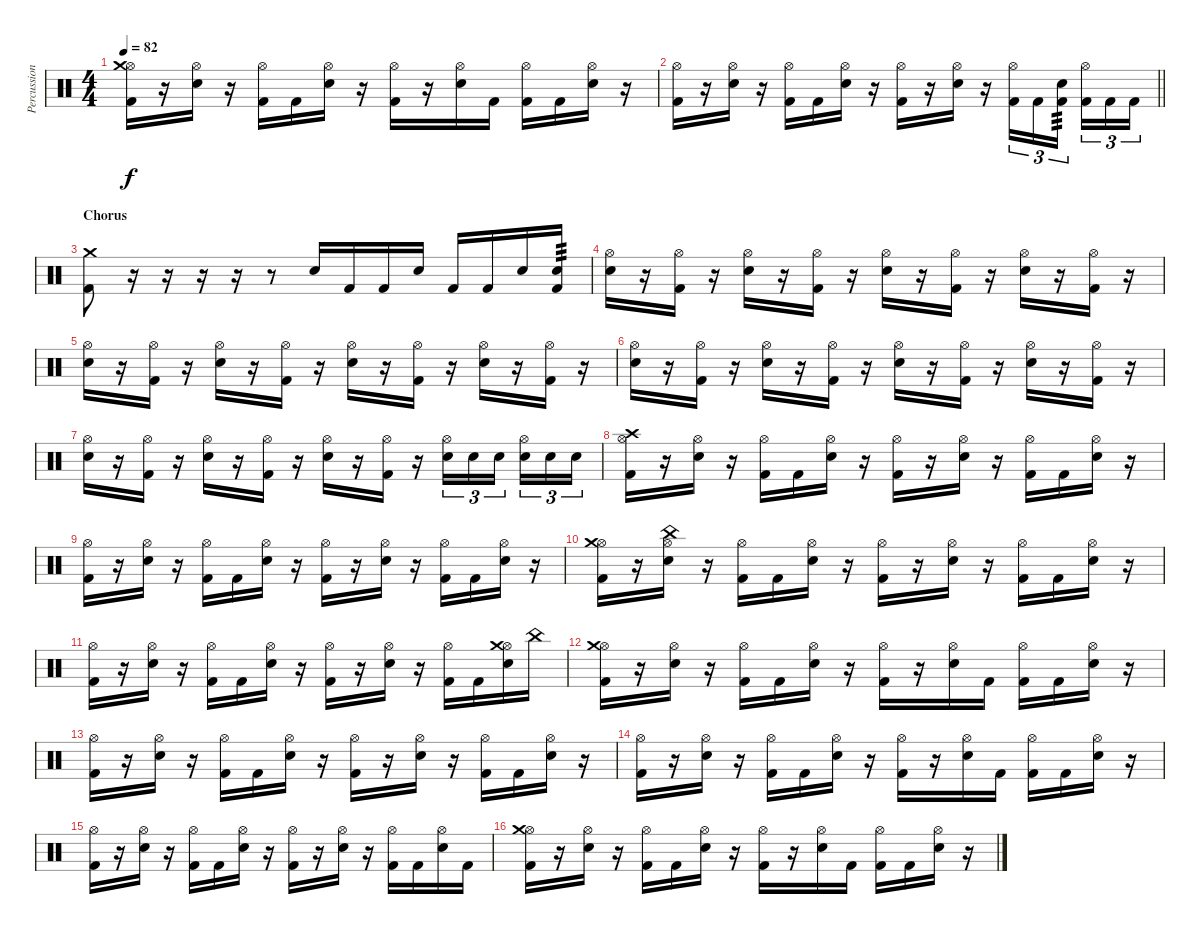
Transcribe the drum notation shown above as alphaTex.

\track ("Percussion" "Percussion") {instrument percussion}
\staff {score}
\articulation defaults
\ts (4 4)
\tempo 82
\clef neutral
\ks c
("Hi-Hat (open)" "Crash medium (hit)" "Kick (hit) 2").16{dy f} r.16 ("Hi-Hat (open)" "Snare (hit) 2").16 r.16 ("Hi-Hat (open)" "Kick (hit) 2").16 "Kick (hit) 2".16 ("Hi-Hat (open)" "Snare (hit) 2").16 r.16 ("Hi-Hat (open)" "Kick (hit) 2").16 r.16 ("Hi-Hat (open)" "Snare (hit) 2").16 "Kick (hit) 2".16 ("Hi-Hat (open)" "Kick (hit) 2").16 "Kick (hit) 2".16 ("Hi-Hat (open)" "Snare (hit) 2").16 r.16 |
\barLineRight lightlight
("Hi-Hat (open)" "Kick (hit) 2").16 r.16 ("Hi-Hat (open)" "Snare (hit) 2").16 r.16 ("Hi-Hat (open)" "Kick (hit) 2").16 "Kick (hit) 2".16 ("Hi-Hat (open)" "Snare (hit) 2").16 r.16 ("Hi-Hat (open)" "Kick (hit) 2").16 r.16 ("Hi-Hat (open)" "Snare (hit) 2").16 r.16 ("Hi-Hat (open)" "Kick (hit) 2").16{tu (3 2)} "Kick (hit) 2".16{tu (3 2)} ("Snare (hit) 2" "Kick (hit) 2").16{tu (3 2) tp 3 beam splitsecondary} ("Hi-Hat (open)" "Kick (hit) 2").16{tu (3 2)} "Kick (hit) 2".16{tu (3 2)} "Kick (hit) 2".16{tu (3 2)} |
\section ("" "Chorus")
("Crash medium (hit)" "Kick (hit) 2").8 r.16 r.16 r.16 r.16 r.8 "Snare (hit) 2".16 "Kick (hit) 2".16 "Kick (hit) 2".16 "Snare (hit) 2".16 "Kick (hit) 2".16 "Kick (hit) 2".16 "Snare (hit) 2".16 ("Snare (hit) 2" "Kick (hit) 2").16{tp 3} |
("Hi-Hat (open)" "Snare (hit) 2").16 r.16 ("Hi-Hat (open)" "Kick (hit) 2").16 r.16 ("Hi-Hat (open)" "Snare (hit) 2").16 r.16 ("Hi-Hat (open)" "Kick (hit) 2").16 r.16 ("Hi-Hat (open)" "Snare (hit) 2").16 r.16 ("Hi-Hat (open)" "Kick (hit) 2").16 r.16 ("Hi-Hat (open)" "Snare (hit) 2").16 r.16 ("Hi-Hat (open)" "Kick (hit) 2").16 r.16 |
("Hi-Hat (open)" "Snare (hit) 2").16 r.16 ("Hi-Hat (open)" "Kick (hit) 2").16 r.16 ("Hi-Hat (open)" "Snare (hit) 2").16 r.16 ("Hi-Hat (open)" "Kick (hit) 2").16 r.16 ("Hi-Hat (open)" "Snare (hit) 2").16 r.16 ("Hi-Hat (open)" "Kick (hit) 2").16 r.16 ("Hi-Hat (open)" "Snare (hit) 2").16 r.16 ("Hi-Hat (open)" "Kick (hit) 2").16 r.16 |
("Hi-Hat (open)" "Snare (hit) 2").16 r.16 ("Hi-Hat (open)" "Kick (hit) 2").16 r.16 ("Hi-Hat (open)" "Snare (hit) 2").16 r.16 ("Hi-Hat (open)" "Kick (hit) 2").16 r.16 ("Hi-Hat (open)" "Snare (hit) 2").16 r.16 ("Hi-Hat (open)" "Kick (hit) 2").16 r.16 ("Hi-Hat (open)" "Snare (hit) 2").16 r.16 ("Hi-Hat (open)" "Kick (hit) 2").16 r.16 |
("Hi-Hat (open)" "Snare (hit) 2").16 r.16 ("Hi-Hat (open)" "Kick (hit) 2").16 r.16 ("Hi-Hat (open)" "Snare (hit) 2").16 r.16 ("Hi-Hat (open)" "Kick (hit) 2").16 r.16 ("Hi-Hat (open)" "Snare (hit) 2").16 r.16 ("Hi-Hat (open)" "Kick (hit) 2").16 r.16 ("Hi-Hat (open)" "Snare (hit) 2").16{tu (3 2)} "Snare (hit) 2".16{tu (3 2)} "Snare (hit) 2".16{tu (3 2) beam splitsecondary} ("Hi-Hat (open)" "Snare (hit) 2").16{tu (3 2)} "Snare (hit) 2".16{tu (3 2)} "Snare (hit) 2".16{tu (3 2)} |
("Hi-Hat (open)" "Crash high (hit)" "Kick (hit) 2").16 r.16 ("Hi-Hat (open)" "Snare (hit) 2").16 r.16 ("Hi-Hat (open)" "Kick (hit) 2").16 "Kick (hit) 2".16 ("Hi-Hat (open)" "Snare (hit) 2").16 r.16 ("Hi-Hat (open)" "Kick (hit) 2").16 r.16 ("Hi-Hat (open)" "Snare (hit) 2").16 r.16 ("Hi-Hat (open)" "Kick (hit) 2").16 "Kick (hit) 2".16 ("Hi-Hat (open)" "Snare (hit) 2").16 r.16 |
("Hi-Hat (open)" "Kick (hit) 2").16 r.16 ("Hi-Hat (open)" "Snare (hit) 2").16 r.16 ("Hi-Hat (open)" "Kick (hit) 2").16 "Kick (hit) 2".16 ("Hi-Hat (open)" "Snare (hit) 2").16 r.16 ("Hi-Hat (open)" "Kick (hit) 2").16 r.16 ("Hi-Hat (open)" "Snare (hit) 2").16 r.16 ("Hi-Hat (open)" "Kick (hit) 2").16 "Kick (hit) 2".16 ("Hi-Hat (open)" "Snare (hit) 2").16 r.16 |
("Hi-Hat (open)" "Crash medium (hit)" "Kick (hit) 2").16 r.16 ("Hi-Hat (open)" "China (hit)" "Snare (hit) 2").16 r.16 ("Hi-Hat (open)" "Kick (hit) 2").16 "Kick (hit) 2".16 ("Hi-Hat (open)" "Snare (hit) 2").16 r.16 ("Hi-Hat (open)" "Kick (hit) 2").16 r.16 ("Hi-Hat (open)" "Snare (hit) 2").16 r.16 ("Hi-Hat (open)" "Kick (hit) 2").16 "Kick (hit) 2".16 ("Hi-Hat (open)" "Snare (hit) 2").16 r.16 |
("Hi-Hat (open)" "Kick (hit) 2").16 r.16 ("Hi-Hat (open)" "Snare (hit) 2").16 r.16 ("Hi-Hat (open)" "Kick (hit) 2").16 "Kick (hit) 2".16 ("Hi-Hat (open)" "Snare (hit) 2").16 r.16 ("Hi-Hat (open)" "Kick (hit) 2").16 r.16 ("Hi-Hat (open)" "Snare (hit) 2").16 r.16 ("Hi-Hat (open)" "Kick (hit) 2").16 "Kick (hit) 2".16 ("Hi-Hat (open)" "Crash medium (hit)" "Snare (hit) 2").16 "China (hit)".16 |
("Hi-Hat (open)" "Crash medium (hit)" "Kick (hit) 2").16 r.16 ("Hi-Hat (open)" "Snare (hit) 2").16 r.16 ("Hi-Hat (open)" "Kick (hit) 2").16 "Kick (hit) 2".16 ("Hi-Hat (open)" "Snare (hit) 2").16 r.16 ("Hi-Hat (open)" "Kick (hit) 2").16 r.16 ("Hi-Hat (open)" "Snare (hit) 2").16 "Kick (hit) 2".16 ("Hi-Hat (open)" "Kick (hit) 2").16 "Kick (hit) 2".16 ("Hi-Hat (open)" "Snare (hit) 2").16 r.16 |
("Hi-Hat (open)" "Kick (hit) 2").16 r.16 ("Hi-Hat (open)" "Snare (hit) 2").16 r.16 ("Hi-Hat (open)" "Kick (hit) 2").16 "Kick (hit) 2".16 ("Hi-Hat (open)" "Snare (hit) 2").16 r.16 ("Hi-Hat (open)" "Kick (hit) 2").16 r.16 ("Hi-Hat (open)" "Snare (hit) 2").16 r.16 ("Hi-Hat (open)" "Kick (hit) 2").16 "Kick (hit) 2".16 ("Hi-Hat (open)" "Snare (hit) 2").16 r.16 |
("Hi-Hat (open)" "Kick (hit) 2").16 r.16 ("Hi-Hat (open)" "Snare (hit) 2").16 r.16 ("Hi-Hat (open)" "Kick (hit) 2").16 "Kick (hit) 2".16 ("Hi-Hat (open)" "Snare (hit) 2").16 r.16 ("Hi-Hat (open)" "Kick (hit) 2").16 r.16 ("Hi-Hat (open)" "Snare (hit) 2").16 "Kick (hit) 2".16 ("Hi-Hat (open)" "Kick (hit) 2").16 "Kick (hit) 2".16 ("Hi-Hat (open)" "Snare (hit) 2").16 r.16 |
("Hi-Hat (open)" "Kick (hit) 2").16 r.16 ("Hi-Hat (open)" "Snare (hit) 2").16 r.16 ("Hi-Hat (open)" "Kick (hit) 2").16 "Kick (hit) 2".16 ("Hi-Hat (open)" "Snare (hit) 2").16 r.16 ("Hi-Hat (open)" "Kick (hit) 2").16 r.16 ("Hi-Hat (open)" "Snare (hit) 2").16 r.16 ("Hi-Hat (open)" "Kick (hit) 2").16 "Kick (hit) 2".16 ("Hi-Hat (open)" "Snare (hit) 2").16 "Kick (hit) 2".16 |
("Hi-Hat (open)" "Crash medium (hit)" "Kick (hit) 2").16 r.16 ("Hi-Hat (open)" "Snare (hit) 2").16 r.16 ("Hi-Hat (open)" "Kick (hit) 2").16 "Kick (hit) 2".16 ("Hi-Hat (open)" "Snare (hit) 2").16 r.16 ("Hi-Hat (open)" "Kick (hit) 2").16 r.16 ("Hi-Hat (open)" "Snare (hit) 2").16 "Kick (hit) 2".16 ("Hi-Hat (open)" "Kick (hit) 2").16 "Kick (hit) 2".16 ("Hi-Hat (open)" "Snare (hit) 2").16 r.16
